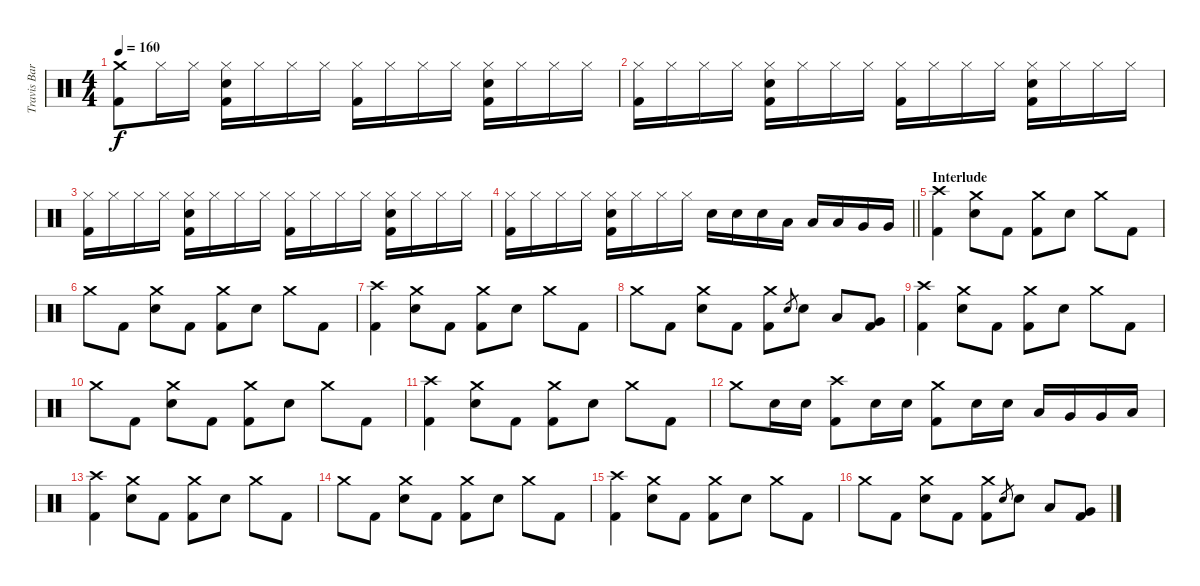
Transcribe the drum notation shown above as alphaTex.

\track ("Travis Barker - Drums" "Travis Bar") {instrument percussion}
\staff {score}
\articulation defaults
\ts (4 4)
\tempo 160
\clef neutral
\ks c
("Crash medium (hit)" "Kick (hit) 2").8{dy f} "Hi-Hat (closed)".16 "Hi-Hat (closed)".16 ("Hi-Hat (closed)" "Electric Snare (hit)" "Kick (hit) 2").16 "Hi-Hat (closed)".16 "Hi-Hat (closed)".16 "Hi-Hat (closed)".16 ("Hi-Hat (closed)" "Kick (hit) 2").16 "Hi-Hat (closed)".16 "Hi-Hat (closed)".16 "Hi-Hat (closed)".16 ("Hi-Hat (closed)" "Electric Snare (hit)" "Kick (hit) 2").16 "Hi-Hat (closed)".16 "Hi-Hat (closed)".16 "Hi-Hat (closed)".16 |
("Hi-Hat (closed)" "Kick (hit) 2").16 "Hi-Hat (closed)".16 "Hi-Hat (closed)".16 "Hi-Hat (closed)".16 ("Hi-Hat (closed)" "Electric Snare (hit)" "Kick (hit) 2").16 "Hi-Hat (closed)".16 "Hi-Hat (closed)".16 "Hi-Hat (closed)".16 ("Hi-Hat (closed)" "Kick (hit) 2").16 "Hi-Hat (closed)".16 "Hi-Hat (closed)".16 "Hi-Hat (closed)".16 ("Hi-Hat (closed)" "Electric Snare (hit)" "Kick (hit) 2").16 "Hi-Hat (closed)".16 "Hi-Hat (closed)".16 "Hi-Hat (closed)".16 |
("Hi-Hat (closed)" "Kick (hit) 2").16 "Hi-Hat (closed)".16 "Hi-Hat (closed)".16 "Hi-Hat (closed)".16 ("Hi-Hat (closed)" "Electric Snare (hit)" "Kick (hit) 2").16 "Hi-Hat (closed)".16 "Hi-Hat (closed)".16 "Hi-Hat (closed)".16 ("Hi-Hat (closed)" "Kick (hit) 2").16 "Hi-Hat (closed)".16 "Hi-Hat (closed)".16 "Hi-Hat (closed)".16 ("Hi-Hat (closed)" "Electric Snare (hit)" "Kick (hit) 2").16 "Hi-Hat (closed)".16 "Hi-Hat (closed)".16 "Hi-Hat (closed)".16 |
\barLineRight lightlight
("Hi-Hat (closed)" "Kick (hit) 2").16 "Hi-Hat (closed)".16 "Hi-Hat (closed)".16 "Hi-Hat (closed)".16 ("Hi-Hat (closed)" "Electric Snare (hit)" "Kick (hit) 2").16 "Hi-Hat (closed)".16 "Hi-Hat (closed)".16 "Hi-Hat (closed)".16 "Electric Snare (hit)".16 "Electric Snare (hit)".16 "Electric Snare (hit)".16 "Low Tom (hit)".16 "Low Tom (hit)".16 "Low Tom (hit)".16 "Very Low Tom (hit)".16 "Very Low Tom (hit)".16 |
\section ("" "Interlude")
("Crash high (hit)" "Kick (hit) 2").4 ("Crash medium (hit)" "Electric Snare (hit)").8 "Kick (hit) 2".8 ("Crash medium (hit)" "Kick (hit) 2").8 "Electric Snare (hit)".8 "Crash medium (hit)".8 "Kick (hit) 2".8 |
"Crash medium (hit)".8 "Kick (hit) 2".8 ("Crash medium (hit)" "Electric Snare (hit)").8 "Kick (hit) 2".8 ("Crash medium (hit)" "Kick (hit) 2").8 "Electric Snare (hit)".8 "Crash medium (hit)".8 "Kick (hit) 2".8 |
("Crash high (hit)" "Kick (hit) 2").4 ("Crash medium (hit)" "Electric Snare (hit)").8 "Kick (hit) 2".8 ("Crash medium (hit)" "Kick (hit) 2").8 "Electric Snare (hit)".8 "Crash medium (hit)".8 "Kick (hit) 2".8 |
"Crash medium (hit)".8 "Kick (hit) 2".8 ("Crash medium (hit)" "Electric Snare (hit)").8 "Kick (hit) 2".8 ("Crash medium (hit)" "Kick (hit) 2").8 "Electric Snare (hit)".8{gr} "Electric Snare (hit)".8 "Low Tom (hit)".8 ("Very Low Tom (hit)" "Kick (hit) 2").8 |
("Crash high (hit)" "Kick (hit) 2").4 ("Crash medium (hit)" "Electric Snare (hit)").8 "Kick (hit) 2".8 ("Crash medium (hit)" "Kick (hit) 2").8 "Electric Snare (hit)".8 "Crash medium (hit)".8 "Kick (hit) 2".8 |
"Crash medium (hit)".8 "Kick (hit) 2".8 ("Crash medium (hit)" "Electric Snare (hit)").8 "Kick (hit) 2".8 ("Crash medium (hit)" "Kick (hit) 2").8 "Electric Snare (hit)".8 "Crash medium (hit)".8 "Kick (hit) 2".8 |
("Crash high (hit)" "Kick (hit) 2").4 ("Crash medium (hit)" "Electric Snare (hit)").8 "Kick (hit) 2".8 ("Crash medium (hit)" "Kick (hit) 2").8 "Electric Snare (hit)".8 "Crash medium (hit)".8 "Kick (hit) 2".8 |
"Crash medium (hit)".8 "Electric Snare (hit)".16 "Electric Snare (hit)".16 ("Crash high (hit)" "Kick (hit) 2").8 "Electric Snare (hit)".16 "Electric Snare (hit)".16 ("Crash medium (hit)" "Kick (hit) 2").8 "Electric Snare (hit)".16 "Electric Snare (hit)".16 "Low Tom (hit)".16 "Very Low Tom (hit)".16 "Very Low Tom (hit)".16 "Low Floor Tom (hit)".16 |
("Crash high (hit)" "Kick (hit) 2").4 ("Crash medium (hit)" "Electric Snare (hit)").8 "Kick (hit) 2".8 ("Crash medium (hit)" "Kick (hit) 2").8 "Electric Snare (hit)".8 "Crash medium (hit)".8 "Kick (hit) 2".8 |
"Crash medium (hit)".8 "Kick (hit) 2".8 ("Crash medium (hit)" "Electric Snare (hit)").8 "Kick (hit) 2".8 ("Crash medium (hit)" "Kick (hit) 2").8 "Electric Snare (hit)".8 "Crash medium (hit)".8 "Kick (hit) 2".8 |
("Crash high (hit)" "Kick (hit) 2").4 ("Crash medium (hit)" "Electric Snare (hit)").8 "Kick (hit) 2".8 ("Crash medium (hit)" "Kick (hit) 2").8 "Electric Snare (hit)".8 "Crash medium (hit)".8 "Kick (hit) 2".8 |
"Crash medium (hit)".8 "Kick (hit) 2".8 ("Crash medium (hit)" "Electric Snare (hit)").8 "Kick (hit) 2".8 ("Crash medium (hit)" "Kick (hit) 2").8 "Electric Snare (hit)".8{gr} "Electric Snare (hit)".8 "Low Tom (hit)".8 ("Very Low Tom (hit)" "Kick (hit) 2").8
